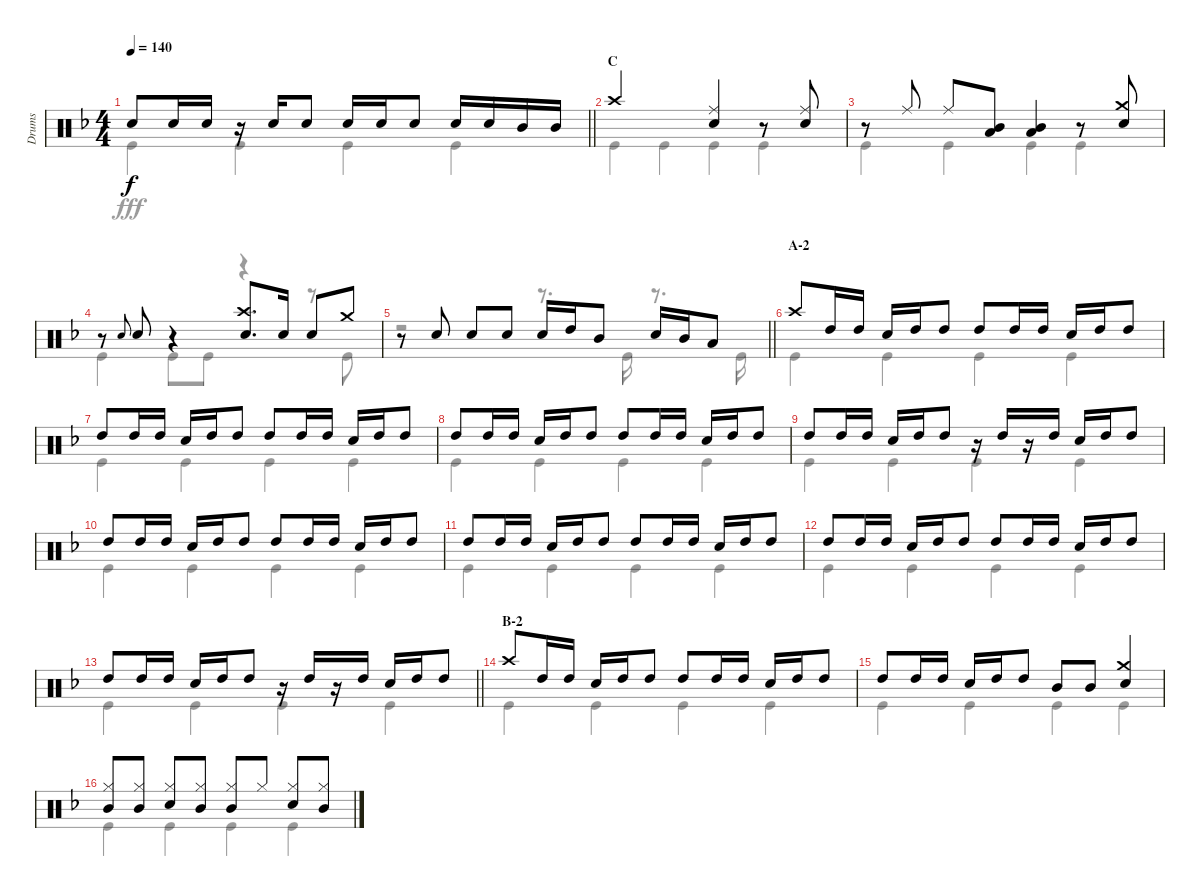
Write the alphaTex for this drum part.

\track ("Drums" "Drums") {instrument percussion}
\staff {score}
\articulation defaults
\voice
\ts (4 4)
\tempo 140
\clef neutral
\barLineRight lightlight
\ks f "Snare (hit) 2".8{dy f} "Snare (hit) 2".16 "Snare (hit) 2".16
r.16 "Snare (hit) 2".16 "Snare (hit) 2".8 "Snare (hit) 2".16 "Snare (hit) 2".16 "Snare (hit) 2".8 "Snare (hit) 2".16 "Snare (hit) 2".16 "Mid Tom (hit)".16 "Mid Tom (hit)".16 |
\section ("" "C")
"Crash high (hit)".2 ("Ride (middle)" "Snare (hit) 2").4 r.8 ("Ride (middle)" "Snare (hit) 2").8 |
r.8 "Ride (middle)".8 "Ride (middle)".8 ("Mid Tom (hit)" "Low Tom (hit)").8 ("Mid Tom (hit)" "Low Tom (hit)").4 r.8 ("Crash medium (hit)" "Snare (hit) 2").8 |
r.8 "Snare (hit) 2".8{gr onbeat} "Snare (hit) 2".8 r.4 ("Crash high (hit)" "Snare (hit) 2").8{d} "Snare (hit) 2".16 "Snare (hit) 2".8 "Crash medium (hit)".8 |
\barLineRight lightlight
r.8 "Snare (hit) 2".8 "Snare (hit) 2".8 "Snare (hit) 2".8 "Snare (hit) 2".16 "High Tom (hit)".16 "Mid Tom (hit)".8 "Snare (hit) 2".16 "Mid Tom (hit)".16 "Low Tom (hit)".8 |
\section ("" "A-2")
"Crash high (hit)".8 "High Tom (hit)".16 "High Tom (hit)".16 "Snare (hit) 2".16 "High Tom (hit)".16 "High Tom (hit)".8 "High Tom (hit)".8 "High Tom (hit)".16 "High Tom (hit)".16 "Snare (hit) 2".16 "High Tom (hit)".16 "High Tom (hit)".8 |
"High Tom (hit)".8 "High Tom (hit)".16 "High Tom (hit)".16 "Snare (hit) 2".16 "High Tom (hit)".16 "High Tom (hit)".8 "High Tom (hit)".8 "High Tom (hit)".16 "High Tom (hit)".16 "Snare (hit) 2".16 "High Tom (hit)".16 "High Tom (hit)".8 |
"High Tom (hit)".8 "High Tom (hit)".16 "High Tom (hit)".16 "Snare (hit) 2".16 "High Tom (hit)".16 "High Tom (hit)".8 "High Tom (hit)".8 "High Tom (hit)".16 "High Tom (hit)".16 "Snare (hit) 2".16 "High Tom (hit)".16 "High Tom (hit)".8 |
"High Tom (hit)".8 "High Tom (hit)".16 "High Tom (hit)".16 "Snare (hit) 2".16 "High Tom (hit)".16 "High Tom (hit)".8 r.16 "High Tom (hit)".16 r.16 "High Tom (hit)".16 "Snare (hit) 2".16 "High Tom (hit)".16 "High Tom (hit)".8 |
"High Tom (hit)".8 "High Tom (hit)".16 "High Tom (hit)".16 "Snare (hit) 2".16 "High Tom (hit)".16 "High Tom (hit)".8 "High Tom (hit)".8 "High Tom (hit)".16 "High Tom (hit)".16 "Snare (hit) 2".16 "High Tom (hit)".16 "High Tom (hit)".8 |
"High Tom (hit)".8 "High Tom (hit)".16 "High Tom (hit)".16 "Snare (hit) 2".16 "High Tom (hit)".16 "High Tom (hit)".8 "High Tom (hit)".8 "High Tom (hit)".16 "High Tom (hit)".16 "Snare (hit) 2".16 "High Tom (hit)".16 "High Tom (hit)".8 |
"High Tom (hit)".8 "High Tom (hit)".16 "High Tom (hit)".16 "Snare (hit) 2".16 "High Tom (hit)".16 "High Tom (hit)".8 "High Tom (hit)".8 "High Tom (hit)".16 "High Tom (hit)".16 "Snare (hit) 2".16 "High Tom (hit)".16 "High Tom (hit)".8 |
\barLineRight lightlight "High Tom (hit)".8 "High Tom (hit)".16 "High Tom (hit)".16 "Snare (hit) 2".16 "High Tom (hit)".16 "High Tom (hit)".8
r.16 "High Tom (hit)".16 r.16 "High Tom (hit)".16 "Snare (hit) 2".16 "High Tom (hit)".16 "High Tom (hit)".8 |
\section ("" "B-2")
"Crash high (hit)".8 "High Tom (hit)".16 "High Tom (hit)".16 "Snare (hit) 2".16 "High Tom (hit)".16 "High Tom (hit)".8 "High Tom (hit)".8 "High Tom (hit)".16 "High Tom (hit)".16 "Snare (hit) 2".16 "High Tom (hit)".16 "High Tom (hit)".8 |
"High Tom (hit)".8 "High Tom (hit)".16 "High Tom (hit)".16 "Snare (hit) 2".16 "High Tom (hit)".16 "High Tom (hit)".8 "Mid Tom (hit)".8 "Mid Tom (hit)".8 ("Crash medium (hit)" "Snare (hit) 2").4 |
("Hi-Hat (closed)" "Mid Tom (hit)").8 ("Hi-Hat (closed)" "Mid Tom (hit)").8 ("Hi-Hat (closed)" "Snare (hit) 2").8 ("Hi-Hat (closed)" "Mid Tom (hit)").8 ("Hi-Hat (closed)" "Mid Tom (hit)").8 "Hi-Hat (closed)".8 ("Hi-Hat (closed)" "Snare (hit) 2").8 ("Hi-Hat (closed)" "Mid Tom (hit)").8
\voice
\clef neutral
\ottava regular
\simile none
\barLineRight lightlight
\ks f "Kick (hit)".4{dy fff} "Kick (hit)".4 "Kick (hit)".4 "Kick (hit)".4
|
"Kick (hit)".4 "Kick (hit)".4 "Kick (hit)".4 "Kick (hit)".4 |
"Kick (hit)".4 "Kick (hit)".4 "Kick (hit)".4 "Kick (hit)".4 |
"Kick (hit)".4 "Kick (hit)".8 "Kick (hit)".8 r.4 r.8 "Kick (hit)".8 |
\barLineRight lightlight
r.2 r.8{d} "Kick (hit)".16 r.8{d} "Kick (hit)".16 |
"Kick (hit)".4 "Kick (hit)".4 "Kick (hit)".4 "Kick (hit)".4 |
"Kick (hit)".4 "Kick (hit)".4 "Kick (hit)".4 "Kick (hit)".4 |
"Kick (hit)".4 "Kick (hit)".4 "Kick (hit)".4 "Kick (hit)".4 |
"Kick (hit)".4 "Kick (hit)".4 "Kick (hit)".4 "Kick (hit)".4 |
"Kick (hit)".4 "Kick (hit)".4 "Kick (hit)".4 "Kick (hit)".4 |
"Kick (hit)".4 "Kick (hit)".4 "Kick (hit)".4 "Kick (hit)".4 |
"Kick (hit)".4 "Kick (hit)".4 "Kick (hit)".4 "Kick (hit)".4 |
\barLineRight lightlight "Kick (hit)".4 "Kick (hit)".4 "Kick (hit)".4 "Kick (hit)".4
|
"Kick (hit)".4 "Kick (hit)".4 "Kick (hit)".4 "Kick (hit)".4 |
"Kick (hit)".4 "Kick (hit)".4 "Kick (hit)".4 "Kick (hit)".4 |
"Kick (hit)".4 "Kick (hit)".4 "Kick (hit)".4 "Kick (hit)".4
